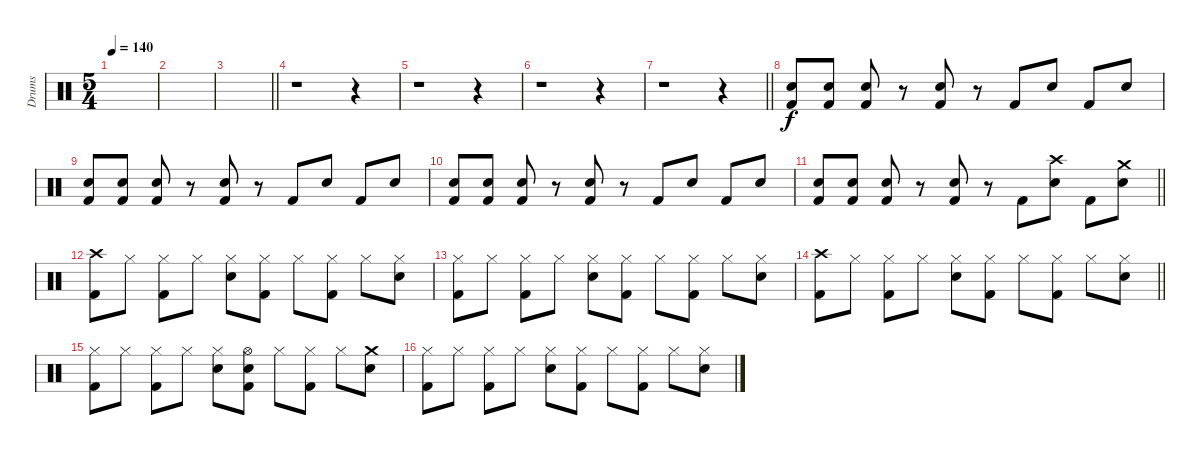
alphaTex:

\track ("Drums" "Drums") {instrument percussion}
\staff {score}
\articulation defaults
\ts (5 4)
\tempo 140
\clef neutral
\ks c
|
|
\barLineRight lightlight
|
r.1 r.4 |
r.1 r.4 |
r.1 r.4 |
\barLineRight lightlight
r.1 r.4 |
("Snare (hit) 2" "Kick (hit) 2").8 ("Snare (hit) 2" "Kick (hit) 2").8 ("Snare (hit) 2" "Kick (hit) 2").8 r.8 ("Snare (hit) 2" "Kick (hit) 2").8 r.8 "Kick (hit) 2".8 "Snare (hit) 2".8 "Kick (hit) 2".8 "Snare (hit) 2".8 |
("Snare (hit) 2" "Kick (hit) 2").8 ("Snare (hit) 2" "Kick (hit) 2").8 ("Snare (hit) 2" "Kick (hit) 2").8 r.8 ("Snare (hit) 2" "Kick (hit) 2").8 r.8 "Kick (hit) 2".8 "Snare (hit) 2".8 "Kick (hit) 2".8 "Snare (hit) 2".8 |
("Snare (hit) 2" "Kick (hit) 2").8 ("Snare (hit) 2" "Kick (hit) 2").8 ("Snare (hit) 2" "Kick (hit) 2").8 r.8 ("Snare (hit) 2" "Kick (hit) 2").8 r.8 "Kick (hit) 2".8 "Snare (hit) 2".8 "Kick (hit) 2".8 "Snare (hit) 2".8 |
\barLineRight lightlight
("Snare (hit) 2" "Kick (hit) 2").8 ("Snare (hit) 2" "Kick (hit) 2").8 ("Snare (hit) 2" "Kick (hit) 2").8 r.8 ("Snare (hit) 2" "Kick (hit) 2").8 r.8 "Kick (hit) 2".8 ("Crash high (hit)" "Snare (hit) 2").8 "Kick (hit) 2".8 ("Crash medium (hit)" "Snare (hit) 2").8 |
("Crash high (hit)" "Kick (hit) 2").8 "Hi-Hat (closed)".8 ("Hi-Hat (closed)" "Kick (hit) 2").8 "Hi-Hat (closed)".8 ("Hi-Hat (closed)" "Snare (hit) 2").8 ("Hi-Hat (closed)" "Kick (hit) 2").8 "Hi-Hat (closed)".8 ("Hi-Hat (closed)" "Kick (hit) 2").8 "Hi-Hat (closed)".8 ("Hi-Hat (closed)" "Snare (hit) 2").8 |
("Hi-Hat (closed)" "Kick (hit) 2").8 "Hi-Hat (closed)".8 ("Hi-Hat (closed)" "Kick (hit) 2").8 "Hi-Hat (closed)".8 ("Hi-Hat (closed)" "Snare (hit) 2").8 ("Hi-Hat (closed)" "Kick (hit) 2").8 "Hi-Hat (closed)".8 ("Hi-Hat (closed)" "Kick (hit) 2").8 "Hi-Hat (closed)".8 ("Hi-Hat (closed)" "Snare (hit) 2").8 |
\barLineRight lightlight
("Crash high (hit)" "Kick (hit) 2").8 "Hi-Hat (closed)".8 ("Hi-Hat (closed)" "Kick (hit) 2").8 "Hi-Hat (closed)".8 ("Hi-Hat (closed)" "Snare (hit) 2").8 ("Hi-Hat (closed)" "Kick (hit) 2").8 "Hi-Hat (closed)".8 ("Hi-Hat (closed)" "Kick (hit) 2").8 "Hi-Hat (closed)".8 ("Hi-Hat (closed)" "Snare (hit) 2").8 |
("Hi-Hat (closed)" "Kick (hit) 2").8 "Hi-Hat (closed)".8 ("Hi-Hat (closed)" "Kick (hit) 2").8 "Hi-Hat (closed)".8 ("Hi-Hat (closed)" "Snare (hit) 2").8 ("Hi-Hat (open)" "Snare (hit) 2" "Kick (hit) 2").8 "Hi-Hat (closed)".8 ("Hi-Hat (closed)" "Kick (hit) 2").8 "Hi-Hat (closed)".8 ("Crash medium (hit)" "Snare (hit) 2").8 |
("Hi-Hat (closed)" "Kick (hit) 2").8 "Hi-Hat (closed)".8 ("Hi-Hat (closed)" "Kick (hit) 2").8 "Hi-Hat (closed)".8 ("Hi-Hat (closed)" "Snare (hit) 2").8 ("Hi-Hat (closed)" "Kick (hit) 2").8 "Hi-Hat (closed)".8 ("Hi-Hat (closed)" "Kick (hit) 2").8 "Hi-Hat (closed)".8 ("Hi-Hat (closed)" "Snare (hit) 2").8
